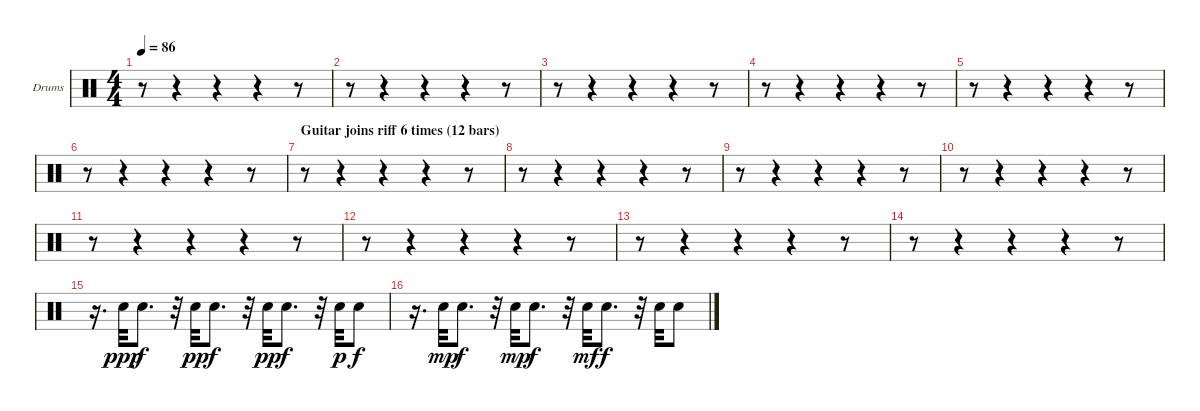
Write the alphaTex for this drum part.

\bracketExtendMode groupsimilarinstruments
\firstSystemTrackNameOrientation horizontal
\otherSystemsTrackNameOrientation horizontal
\track ("Drumkit" "Drums") {instrument percussion}
\staff {score}
\articulation defaults
\ts (4 4)
\tempo 86
\clef neutral
\ks c
r.8{dy f} r.4 r.4 r.4 r.8 |
r.8 r.4 r.4 r.4 r.8 |
r.8 r.4 r.4 r.4 r.8 |
r.8 r.4 r.4 r.4 r.8 |
r.8 r.4 r.4 r.4 r.8 |
r.8 r.4 r.4 r.4 r.8 |
\section ("" "Guitar joins riff 6 times (12 bars)")
r.8 r.4 r.4 r.4 r.8 |
r.8 r.4 r.4 r.4 r.8 |
r.8 r.4 r.4 r.4 r.8 |
r.8 r.4 r.4 r.4 r.8 |
r.8 r.4 r.4 r.4 r.8 |
r.8 r.4 r.4 r.4 r.8 |
r.8 r.4 r.4 r.4 r.8 |
r.8 r.4 r.4 r.4 r.8 |
r.16{d} "Snare (hit) 2".32{dy ppp} "Snare (hit) 2".8{d dy f} r.32 "Snare (hit) 2".32{dy pp} "Snare (hit) 2".8{d dy f} r.32 "Snare (hit) 2".32{dy pp} "Snare (hit) 2".8{d dy f} r.32 "Snare (hit) 2".32{dy p} "Snare (hit) 2".8{dy f} |
r.16{d} "Snare (hit) 2".32{dy mp} "Snare (hit) 2".8{d dy f} r.32 "Snare (hit) 2".32{dy mp} "Snare (hit) 2".8{d dy f} r.32 "Snare (hit) 2".32{dy mf} "Snare (hit) 2".8{d dy f} r.32 "Snare (hit) 2".32 "Snare (hit) 2".8
